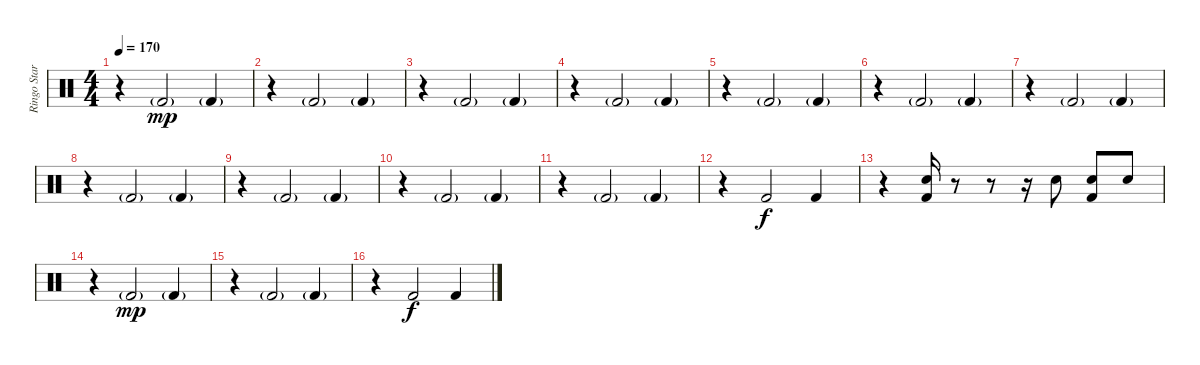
\track ("Ringo Star (Thomas)" "Ringo Star") {instrument percussion}
\staff {score}
\articulation defaults
\ts (4 4)
\tempo 170
\clef neutral
\ks c
r.4{dy mp} "Kick (hit) 2"{g}.2 "Kick (hit) 2"{g}.4 |
r.4 "Kick (hit) 2"{g}.2 "Kick (hit) 2"{g}.4 |
r.4 "Kick (hit) 2"{g}.2 "Kick (hit) 2"{g}.4 |
r.4 "Kick (hit) 2"{g}.2 "Kick (hit) 2"{g}.4 |
r.4 "Kick (hit) 2"{g}.2 "Kick (hit) 2"{g}.4 |
r.4 "Kick (hit) 2"{g}.2 "Kick (hit) 2"{g}.4 |
r.4 "Kick (hit) 2"{g}.2 "Kick (hit) 2"{g}.4 |
r.4 "Kick (hit) 2"{g}.2 "Kick (hit) 2"{g}.4 |
r.4 "Kick (hit) 2"{g}.2 "Kick (hit) 2"{g}.4 |
r.4 "Kick (hit) 2"{g}.2 "Kick (hit) 2"{g}.4 |
r.4 "Kick (hit) 2"{g}.2 "Kick (hit) 2"{g}.4 |
r.4 "Kick (hit) 2".2{dy f} "Kick (hit) 2".4 |
r.4 ("Snare (hit) 2" "Kick (hit) 2").16 r.8 r.8 r.16 "Snare (hit) 2".8 ("Snare (hit) 2" "Kick (hit) 2").8 "Snare (hit) 2".8 |
r.4 "Kick (hit) 2"{g}.2{dy mp} "Kick (hit) 2"{g}.4 |
r.4 "Kick (hit) 2"{g}.2 "Kick (hit) 2"{g}.4 |
r.4 "Kick (hit) 2".2{dy f} "Kick (hit) 2".4
